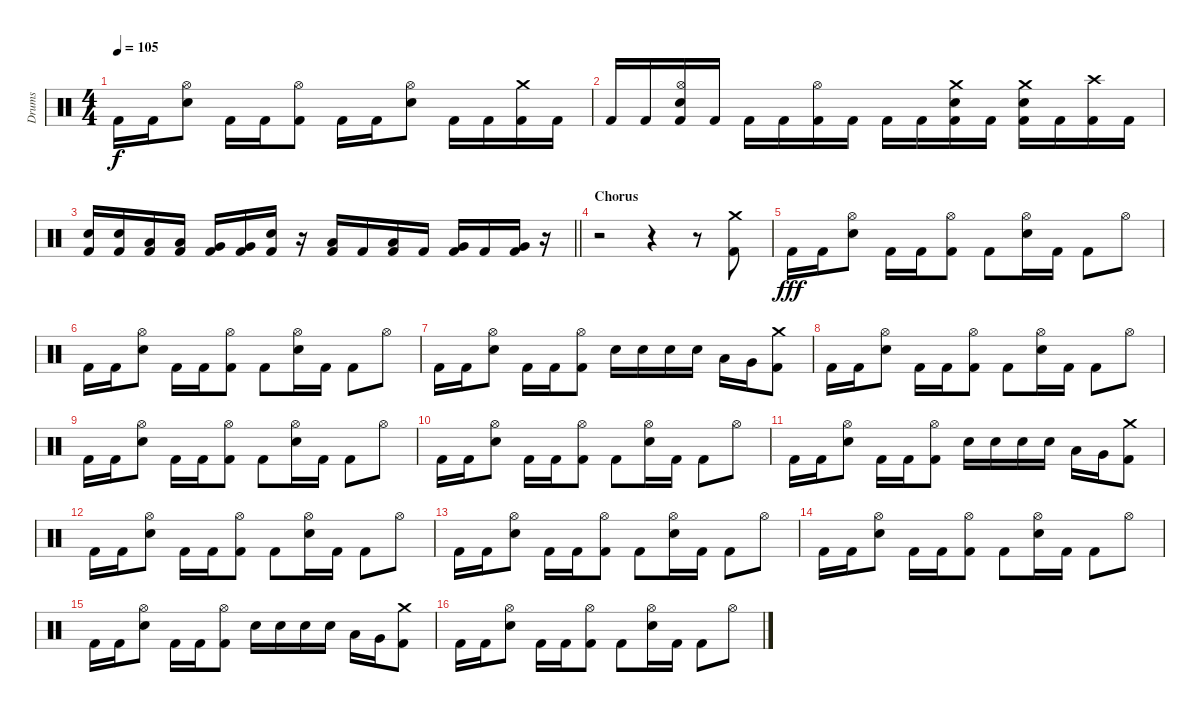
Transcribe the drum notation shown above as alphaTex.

\track ("Drums" "Drums") {instrument percussion}
\staff {score}
\articulation defaults
\ts (4 4)
\tempo 105
\clef neutral
\ks c "Kick (hit) 2".16{dy f} "Kick (hit) 2".16
("Hi-Hat (open)" "Snare (hit) 2").8 "Kick (hit) 2".16 "Kick (hit) 2".16 ("Hi-Hat (open)" "Kick (hit) 2").8 "Kick (hit) 2".16 "Kick (hit) 2".16 ("Hi-Hat (open)" "Snare (hit) 2").8 "Kick (hit) 2".16 "Kick (hit) 2".16 ("Crash medium (hit)" "Kick (hit) 2").16 "Kick (hit) 2".16 |
"Kick (hit) 2".16 "Kick (hit) 2".16 ("Hi-Hat (open)" "Snare (hit) 2" "Kick (hit) 2").16 "Kick (hit) 2".16 "Kick (hit) 2".16 "Kick (hit) 2".16 ("Hi-Hat (open)" "Kick (hit) 2").16 "Kick (hit) 2".16 "Kick (hit) 2".16 "Kick (hit) 2".16 ("Crash medium (hit)" "Snare (hit) 2" "Kick (hit) 2").16 "Kick (hit) 2".16 ("Crash medium (hit)" "Snare (hit) 2" "Kick (hit) 2").16 "Kick (hit) 2".16 ("Crash high (hit)" "Kick (hit) 2").16 "Kick (hit) 2".16 |
\barLineRight lightlight
("Snare (hit) 2" "Kick (hit) 2").16 ("Snare (hit) 2" "Kick (hit) 2").16 ("Low Tom (hit)" "Kick (hit) 2").16 ("Low Tom (hit)" "Kick (hit) 2").16 ("Very Low Tom (hit)" "Kick (hit) 2").16 ("Very Low Tom (hit)" "Kick (hit) 2").16 ("Snare (hit) 2" "Kick (hit) 2").16 r.16 ("Low Floor Tom (hit)" "Kick (hit) 2").16 "Kick (hit) 2".16 ("Low Tom (hit)" "Kick (hit) 2").16 "Kick (hit) 2".16 ("Very Low Tom (hit)" "Kick (hit) 2").16 "Kick (hit) 2".16 ("Very Low Tom (hit)" "Kick (hit) 2").16 r.16 |
\section ("" "Chorus")
r.2 r.4 r.8 ("Crash medium (hit)" "Kick (hit) 2").8 |
"Kick (hit) 2".16{dy fff} "Kick (hit) 2".16 ("Hi-Hat (open)" "Snare (hit) 2").8 "Kick (hit) 2".16 "Kick (hit) 2".16 ("Hi-Hat (open)" "Kick (hit) 2").8 "Kick (hit) 2".8 ("Hi-Hat (open)" "Snare (hit) 2").16 "Kick (hit) 2".16 "Kick (hit) 2".8 "Hi-Hat (open)".8 |
"Kick (hit) 2".16 "Kick (hit) 2".16 ("Hi-Hat (open)" "Snare (hit) 2").8 "Kick (hit) 2".16 "Kick (hit) 2".16 ("Hi-Hat (open)" "Kick (hit) 2").8 "Kick (hit) 2".8 ("Hi-Hat (open)" "Snare (hit) 2").16 "Kick (hit) 2".16 "Kick (hit) 2".8 "Hi-Hat (open)".8 |
"Kick (hit) 2".16 "Kick (hit) 2".16 ("Hi-Hat (open)" "Snare (hit) 2").8 "Kick (hit) 2".16 "Kick (hit) 2".16 ("Hi-Hat (open)" "Kick (hit) 2").8 "Snare (hit) 2".16 "Snare (hit) 2".16 "Snare (hit) 2".16 "Snare (hit) 2".16 "Low Tom (hit)".16 "Very Low Tom (hit)".16 ("Crash medium (hit)" "Kick (hit) 2").8 |
"Kick (hit) 2".16 "Kick (hit) 2".16 ("Hi-Hat (open)" "Snare (hit) 2").8 "Kick (hit) 2".16 "Kick (hit) 2".16 ("Hi-Hat (open)" "Kick (hit) 2").8 "Kick (hit) 2".8 ("Hi-Hat (open)" "Snare (hit) 2").16 "Kick (hit) 2".16 "Kick (hit) 2".8 "Hi-Hat (open)".8 |
"Kick (hit) 2".16 "Kick (hit) 2".16 ("Hi-Hat (open)" "Snare (hit) 2").8 "Kick (hit) 2".16 "Kick (hit) 2".16 ("Hi-Hat (open)" "Kick (hit) 2").8 "Kick (hit) 2".8 ("Hi-Hat (open)" "Snare (hit) 2").16 "Kick (hit) 2".16 "Kick (hit) 2".8 "Hi-Hat (open)".8 |
"Kick (hit) 2".16 "Kick (hit) 2".16 ("Hi-Hat (open)" "Snare (hit) 2").8 "Kick (hit) 2".16 "Kick (hit) 2".16 ("Hi-Hat (open)" "Kick (hit) 2").8 "Kick (hit) 2".8 ("Hi-Hat (open)" "Snare (hit) 2").16 "Kick (hit) 2".16 "Kick (hit) 2".8 "Hi-Hat (open)".8 |
"Kick (hit) 2".16 "Kick (hit) 2".16 ("Hi-Hat (open)" "Snare (hit) 2").8 "Kick (hit) 2".16 "Kick (hit) 2".16 ("Hi-Hat (open)" "Kick (hit) 2").8 "Snare (hit) 2".16 "Snare (hit) 2".16 "Snare (hit) 2".16 "Snare (hit) 2".16 "Low Tom (hit)".16 "Very Low Tom (hit)".16 ("Crash medium (hit)" "Kick (hit) 2").8 |
"Kick (hit) 2".16 "Kick (hit) 2".16 ("Hi-Hat (open)" "Snare (hit) 2").8 "Kick (hit) 2".16 "Kick (hit) 2".16 ("Hi-Hat (open)" "Kick (hit) 2").8 "Kick (hit) 2".8 ("Hi-Hat (open)" "Snare (hit) 2").16 "Kick (hit) 2".16 "Kick (hit) 2".8 "Hi-Hat (open)".8 |
"Kick (hit) 2".16 "Kick (hit) 2".16 ("Hi-Hat (open)" "Snare (hit) 2").8 "Kick (hit) 2".16 "Kick (hit) 2".16 ("Hi-Hat (open)" "Kick (hit) 2").8 "Kick (hit) 2".8 ("Hi-Hat (open)" "Snare (hit) 2").16 "Kick (hit) 2".16 "Kick (hit) 2".8 "Hi-Hat (open)".8 |
"Kick (hit) 2".16 "Kick (hit) 2".16 ("Hi-Hat (open)" "Snare (hit) 2").8 "Kick (hit) 2".16 "Kick (hit) 2".16 ("Hi-Hat (open)" "Kick (hit) 2").8 "Kick (hit) 2".8 ("Hi-Hat (open)" "Snare (hit) 2").16 "Kick (hit) 2".16 "Kick (hit) 2".8 "Hi-Hat (open)".8 |
"Kick (hit) 2".16 "Kick (hit) 2".16 ("Hi-Hat (open)" "Snare (hit) 2").8 "Kick (hit) 2".16 "Kick (hit) 2".16 ("Hi-Hat (open)" "Kick (hit) 2").8 "Snare (hit) 2".16 "Snare (hit) 2".16 "Snare (hit) 2".16 "Snare (hit) 2".16 "Low Tom (hit)".16 "Very Low Tom (hit)".16 ("Crash medium (hit)" "Kick (hit) 2").8 |
"Kick (hit) 2".16 "Kick (hit) 2".16 ("Hi-Hat (open)" "Snare (hit) 2").8 "Kick (hit) 2".16 "Kick (hit) 2".16 ("Hi-Hat (open)" "Kick (hit) 2").8 "Kick (hit) 2".8 ("Hi-Hat (open)" "Snare (hit) 2").16 "Kick (hit) 2".16 "Kick (hit) 2".8 "Hi-Hat (open)".8
